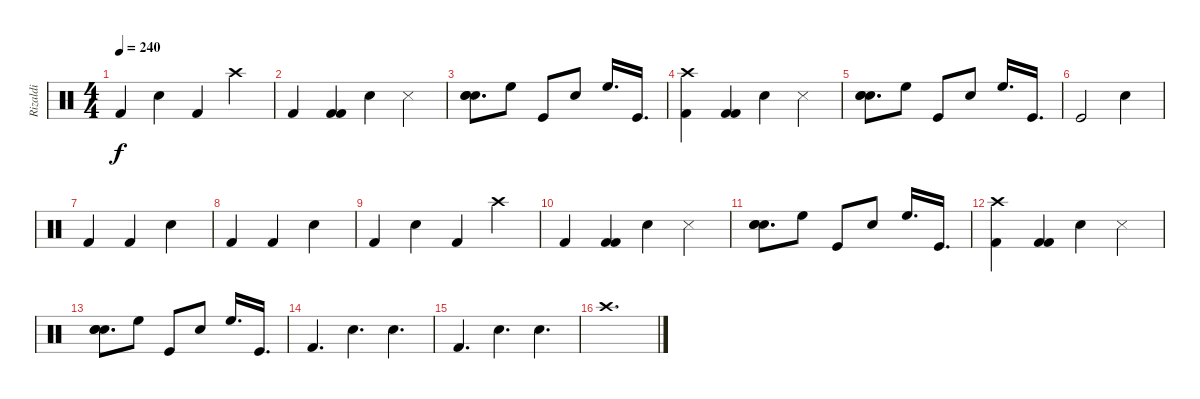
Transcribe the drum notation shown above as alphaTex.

\track ("Rizaldi" "Rizaldi") {instrument percussion}
\staff {score}
\articulation defaults
\ts (4 4)
\tempo 240
\clef neutral
\ks c "Kick (hit) 2".4{dy f} "Snare (hit) 2".4 "Kick (hit) 2".4 "Crash high (hit)".4
|
"Kick (hit) 2".4 ("Kick (hit) 2" "Kick (hit) 2").4 "Snare (hit) 2".4 "Snare (side stick) 3".4 |
("Electric Snare (hit)" "Snare (hit) 2" "Snare (hit) 2").8{d} "High Floor Tom (hit)".8 "Kick (hit)".8 "Snare (hit) 2".8 "High Floor Tom (hit)".16{d} "Kick (hit)".16{d} |
("Kick (hit) 2" "Crash high (hit)").4 ("Kick (hit) 2" "Kick (hit) 2").4 "Snare (hit) 2".4 "Snare (side stick) 3".4 |
("Electric Snare (hit)" "Snare (hit) 2" "Snare (hit) 2").8{d} "High Floor Tom (hit)".8 "Kick (hit)".8 "Snare (hit) 2".8 "High Floor Tom (hit)".16{d} "Kick (hit)".16{d} |
"Kick (hit)".2 "Snare (hit) 2".4 |
"Kick (hit) 2".4 "Kick (hit) 2".4 "Snare (hit) 2".4 |
"Kick (hit) 2".4 "Kick (hit) 2".4 "Snare (hit) 2".4 |
"Kick (hit) 2".4 "Snare (hit) 2".4 "Kick (hit) 2".4 "Crash high (hit)".4 |
"Kick (hit) 2".4 ("Kick (hit) 2" "Kick (hit) 2").4 "Snare (hit) 2".4 "Snare (side stick) 3".4 |
("Electric Snare (hit)" "Snare (hit) 2" "Snare (hit) 2").8{d} "High Floor Tom (hit)".8 "Kick (hit)".8 "Snare (hit) 2".8 "High Floor Tom (hit)".16{d} "Kick (hit)".16{d} |
("Kick (hit) 2" "Crash high (hit)").4 ("Kick (hit) 2" "Kick (hit) 2").4 "Snare (hit) 2".4 "Snare (side stick) 3".4 |
("Electric Snare (hit)" "Snare (hit) 2" "Snare (hit) 2").8{d} "High Floor Tom (hit)".8 "Kick (hit)".8 "Snare (hit) 2".8 "High Floor Tom (hit)".16{d} "Kick (hit)".16{d} |
"Kick (hit) 2".4{d} "Snare (hit) 2".4{d} "Snare (hit) 2".4{d} |
"Kick (hit) 2".4{d} "Snare (hit) 2".4{d} "Snare (hit) 2".4{d} |
"Crash high (hit)".1{d}
